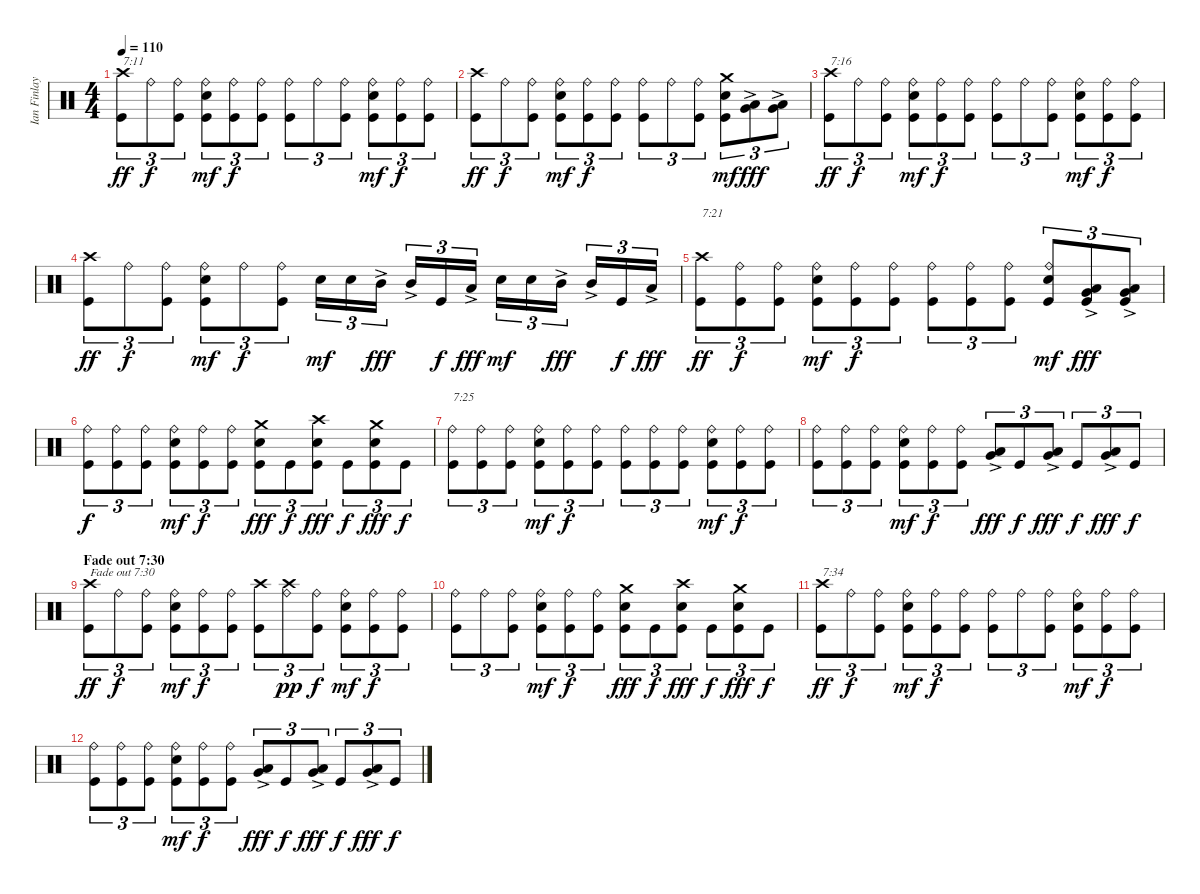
\track ("Ian Finlay" "Ian Finlay") {instrument percussion}
\staff {score}
\articulation defaults
\ts (4 4)
\tempo 110
\clef neutral
\ks c
("Kick (hit)" "Crash high (hit)").8{tu (3 2) txt "7:11" dy ff} "Ride (bell)".8{tu (3 2) dy f} ("Kick (hit)" "Ride (bell)").8{tu (3 2)} ("Kick (hit)" "Snare (hit) 2" "Ride (bell)").8{tu (3 2) dy mf} ("Kick (hit)" "Ride (bell)").8{tu (3 2) dy f} ("Kick (hit)" "Ride (bell)").8{tu (3 2)} ("Kick (hit)" "Ride (bell)").8{tu (3 2)} "Ride (bell)".8{tu (3 2)} ("Kick (hit)" "Ride (bell)").8{tu (3 2)} ("Kick (hit)" "Snare (hit) 2" "Ride (bell)").8{tu (3 2) dy mf} ("Kick (hit)" "Ride (bell)").8{tu (3 2) dy f} ("Kick (hit)" "Ride (bell)").8{tu (3 2)} |
("Kick (hit)" "Crash high (hit)").8{tu (3 2) dy ff} "Ride (bell)".8{tu (3 2) dy f} ("Kick (hit)" "Ride (bell)").8{tu (3 2)} ("Kick (hit)" "Snare (hit) 2" "Ride (bell)").8{tu (3 2) dy mf} ("Kick (hit)" "Ride (bell)").8{tu (3 2) dy f} ("Kick (hit)" "Ride (bell)").8{tu (3 2)} ("Kick (hit)" "Ride (bell)").8{tu (3 2)} "Ride (bell)".8{tu (3 2)} ("Kick (hit)" "Ride (bell)").8{tu (3 2)} ("Kick (hit)" "Snare (hit) 2" "Crash medium (hit)").8{tu (3 2) dy mf} ("Very Low Tom (hit)"{ac} "Low Floor Tom (hit)"{ac}).8{tu (3 2) dy fff} ("Very Low Tom (hit)"{ac} "Low Tom (hit)"{ac}).8{tu (3 2)} |
("Kick (hit)" "Crash high (hit)").8{tu (3 2) txt "7:16" dy ff} "Ride (bell)".8{tu (3 2) dy f} ("Kick (hit)" "Ride (bell)").8{tu (3 2)} ("Kick (hit)" "Snare (hit) 2" "Ride (bell)").8{tu (3 2) dy mf} ("Kick (hit)" "Ride (bell)").8{tu (3 2) dy f} ("Kick (hit)" "Ride (bell)").8{tu (3 2)} ("Kick (hit)" "Ride (bell)").8{tu (3 2)} "Ride (bell)".8{tu (3 2)} ("Kick (hit)" "Ride (bell)").8{tu (3 2)} ("Kick (hit)" "Snare (hit) 2" "Ride (bell)").8{tu (3 2) dy mf} ("Kick (hit)" "Ride (bell)").8{tu (3 2) dy f} ("Kick (hit)" "Ride (bell)").8{tu (3 2)} |
("Kick (hit)" "Crash high (hit)").8{tu (3 2) dy ff} "Ride (bell)".8{tu (3 2) dy f} ("Kick (hit)" "Ride (bell)").8{tu (3 2)} ("Kick (hit)" "Snare (hit) 2" "Ride (bell)").8{tu (3 2) dy mf} "Ride (bell)".8{tu (3 2) dy f} ("Kick (hit)" "Ride (bell)").8{tu (3 2)} "Snare (hit) 2".16{tu (3 2) dy mf} "Snare (hit) 2".16{tu (3 2)} "Mid Tom (hit)"{ac}.16{tu (3 2) dy fff} "Mid Tom (hit)"{ac}.16{tu (3 2)} "Kick (hit)".16{tu (3 2) dy f} "Low Tom (hit)"{ac}.16{tu (3 2) dy fff} "Snare (hit) 2".16{tu (3 2) dy mf} "Snare (hit) 2".16{tu (3 2)} "Mid Tom (hit)"{ac}.16{tu (3 2) dy fff} "Mid Tom (hit)"{ac}.16{tu (3 2)} "Kick (hit)".16{tu (3 2) dy f} "Low Tom (hit)"{ac}.16{tu (3 2) dy fff} |
("Kick (hit)" "Crash high (hit)").8{tu (3 2) txt "7:21" dy ff} ("Kick (hit)" "Ride (bell)").8{tu (3 2) dy f} ("Kick (hit)" "Ride (bell)").8{tu (3 2)} ("Kick (hit)" "Snare (hit) 2" "Ride (bell)").8{tu (3 2) dy mf} ("Kick (hit)" "Ride (bell)").8{tu (3 2) dy f} ("Kick (hit)" "Ride (bell)").8{tu (3 2)} ("Kick (hit)" "Ride (bell)").8{tu (3 2)} ("Kick (hit)" "Ride (bell)").8{tu (3 2)} ("Kick (hit)" "Ride (bell)").8{tu (3 2)} ("Kick (hit)" "Snare (hit) 2" "Ride (bell)").8{tu (3 2) dy mf} ("Kick (hit)" "Very Low Tom (hit)"{ac} "Low Tom (hit)"{ac}).8{tu (3 2) dy fff} ("Kick (hit)" "Very Low Tom (hit)"{ac} "Low Floor Tom (hit)"{ac}).8{tu (3 2)} |
("Kick (hit)" "Ride (bell)").8{tu (3 2) dy f} ("Kick (hit)" "Ride (bell)").8{tu (3 2)} ("Kick (hit)" "Ride (bell)").8{tu (3 2)} ("Kick (hit)" "Snare (hit) 2" "Ride (bell)").8{tu (3 2) dy mf} ("Kick (hit)" "Ride (bell)").8{tu (3 2) dy f} ("Kick (hit)" "Ride (bell)").8{tu (3 2)} ("Kick (hit)" "Snare (hit) 2" "Crash medium (hit)").8{tu (3 2) dy fff} "Kick (hit)".8{tu (3 2) dy f} ("Kick (hit)" "Snare (hit) 2" "Crash high (hit)").8{tu (3 2) dy fff} "Kick (hit)".8{tu (3 2) dy f} ("Kick (hit)" "Snare (hit) 2" "Crash medium (hit)").8{tu (3 2) dy fff} "Kick (hit)".8{tu (3 2) dy f} |
("Kick (hit)" "Ride (bell)").8{tu (3 2) txt "7:25"} ("Kick (hit)" "Ride (bell)").8{tu (3 2)} ("Kick (hit)" "Ride (bell)").8{tu (3 2)} ("Kick (hit)" "Snare (hit) 2" "Ride (bell)").8{tu (3 2) dy mf} ("Kick (hit)" "Ride (bell)").8{tu (3 2) dy f} ("Kick (hit)" "Ride (bell)").8{tu (3 2)} ("Kick (hit)" "Ride (bell)").8{tu (3 2)} ("Kick (hit)" "Ride (bell)").8{tu (3 2)} ("Kick (hit)" "Ride (bell)").8{tu (3 2)} ("Kick (hit)" "Snare (hit) 2" "Ride (bell)").8{tu (3 2) dy mf} ("Kick (hit)" "Ride (bell)").8{tu (3 2) dy f} ("Kick (hit)" "Ride (bell)").8{tu (3 2)} |
("Kick (hit)" "Ride (bell)").8{tu (3 2)} ("Kick (hit)" "Ride (bell)").8{tu (3 2)} ("Kick (hit)" "Ride (bell)").8{tu (3 2)} ("Kick (hit)" "Snare (hit) 2" "Ride (bell)").8{tu (3 2) dy mf} ("Kick (hit)" "Ride (bell)").8{tu (3 2) dy f} ("Kick (hit)" "Ride (bell)").8{tu (3 2)} ("Very Low Tom (hit)"{ac} "Low Tom (hit)"{ac}).8{tu (3 2) dy fff} "Kick (hit)".8{tu (3 2) dy f} ("Very Low Tom (hit)"{ac} "Low Floor Tom (hit)"{ac}).8{tu (3 2) dy fff} "Kick (hit)".8{tu (3 2) dy f} ("Very Low Tom (hit)"{ac} "Low Tom (hit)"{ac}).8{tu (3 2) dy fff} "Kick (hit)".8{tu (3 2) dy f} |
\section ("" "Fade out 7:30")
("Kick (hit)" "Crash high (hit)").8{tu (3 2) txt "Fade out 7:30" dy ff} "Ride (bell)".8{tu (3 2) dy f} ("Kick (hit)" "Ride (bell)").8{tu (3 2)} ("Kick (hit)" "Snare (hit) 2" "Ride (bell)").8{tu (3 2) dy mf} ("Kick (hit)" "Ride (bell)").8{tu (3 2) dy f} ("Kick (hit)" "Ride (bell)").8{tu (3 2)} ("Kick (hit)" "Crash high (hit)").8{tu (3 2)} ("Ride (bell)" "Crash high (hit)").8{tu (3 2) dy pp} ("Kick (hit)" "Ride (bell)").8{tu (3 2) dy f} ("Kick (hit)" "Snare (hit) 2" "Ride (bell)").8{tu (3 2) dy mf} ("Kick (hit)" "Ride (bell)").8{tu (3 2) dy f} ("Kick (hit)" "Ride (bell)").8{tu (3 2)} |
("Kick (hit)" "Ride (bell)").8{tu (3 2)} "Ride (bell)".8{tu (3 2)} ("Kick (hit)" "Ride (bell)").8{tu (3 2)} ("Kick (hit)" "Snare (hit) 2" "Ride (bell)").8{tu (3 2) dy mf} ("Kick (hit)" "Ride (bell)").8{tu (3 2) dy f} ("Kick (hit)" "Ride (bell)").8{tu (3 2)} ("Kick (hit)" "Snare (hit) 2" "Crash medium (hit)").8{tu (3 2) dy fff} "Kick (hit)".8{tu (3 2) dy f} ("Kick (hit)" "Snare (hit) 2" "Crash high (hit)").8{tu (3 2) dy fff} "Kick (hit)".8{tu (3 2) dy f} ("Kick (hit)" "Snare (hit) 2" "Crash medium (hit)").8{tu (3 2) dy fff} "Kick (hit)".8{tu (3 2) dy f} |
("Kick (hit)" "Crash high (hit)").8{tu (3 2) txt "7:34" dy ff} "Ride (bell)".8{tu (3 2) dy f} ("Kick (hit)" "Ride (bell)").8{tu (3 2)} ("Kick (hit)" "Snare (hit) 2" "Ride (bell)").8{tu (3 2) dy mf} ("Kick (hit)" "Ride (bell)").8{tu (3 2) dy f} ("Kick (hit)" "Ride (bell)").8{tu (3 2)} ("Kick (hit)" "Ride (bell)").8{tu (3 2)} "Ride (bell)".8{tu (3 2)} ("Kick (hit)" "Ride (bell)").8{tu (3 2)} ("Kick (hit)" "Snare (hit) 2" "Ride (bell)").8{tu (3 2) dy mf} ("Kick (hit)" "Ride (bell)").8{tu (3 2) dy f} ("Kick (hit)" "Ride (bell)").8{tu (3 2)} |
("Kick (hit)" "Ride (bell)").8{tu (3 2)} ("Kick (hit)" "Ride (bell)").8{tu (3 2)} ("Kick (hit)" "Ride (bell)").8{tu (3 2)} ("Kick (hit)" "Snare (hit) 2" "Ride (bell)").8{tu (3 2) dy mf} ("Kick (hit)" "Ride (bell)").8{tu (3 2) dy f} ("Kick (hit)" "Ride (bell)").8{tu (3 2)} ("Very Low Tom (hit)"{ac} "Low Tom (hit)"{ac}).8{tu (3 2) dy fff} "Kick (hit)".8{tu (3 2) dy f} ("Very Low Tom (hit)"{ac} "Low Floor Tom (hit)"{ac}).8{tu (3 2) dy fff} "Kick (hit)".8{tu (3 2) dy f} ("Very Low Tom (hit)"{ac} "Low Tom (hit)"{ac}).8{tu (3 2) dy fff} "Kick (hit)".8{tu (3 2) dy f}
